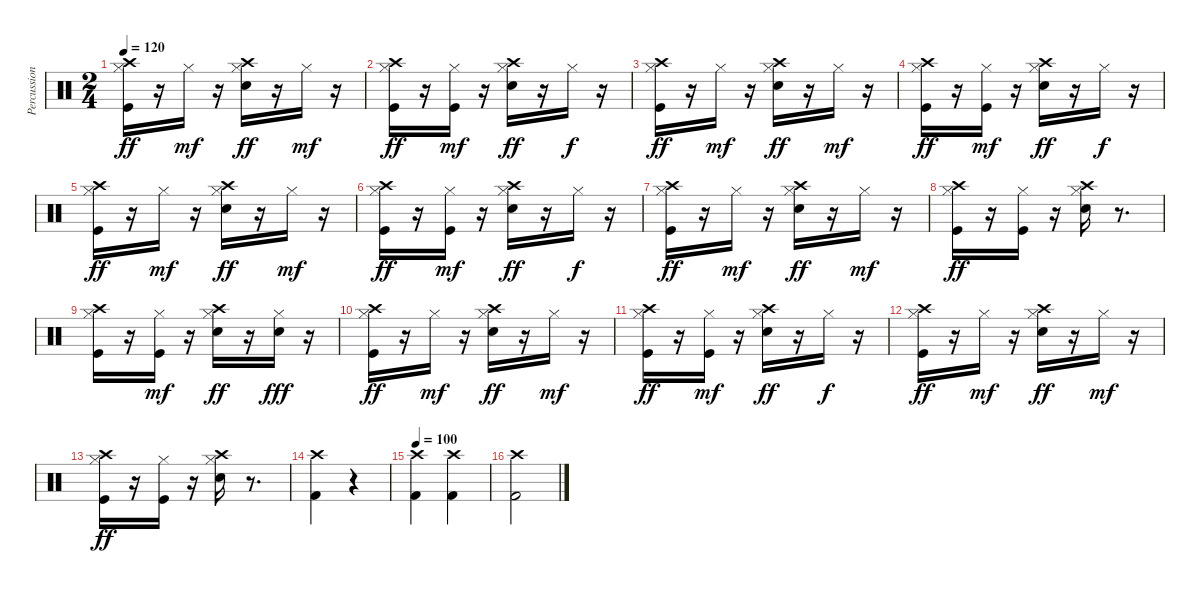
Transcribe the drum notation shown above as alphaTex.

\track ("Percussion" "Percussion") {instrument percussion}
\staff {score}
\articulation defaults
\ts (2 4)
\tempo 120
\clef neutral
\ks c
("Kick (hit)" "Hi-Hat (closed)" "Crash high (hit)").16{dy ff} r.16 "Hi-Hat (closed)".16{dy mf} r.16 ("Snare (hit) 2" "Hi-Hat (closed)" "Crash high (hit)").16{dy ff} r.16 "Hi-Hat (closed)".16{dy mf} r.16 |
("Kick (hit)" "Hi-Hat (closed)" "Crash high (hit)").16{dy ff} r.16 ("Kick (hit)" "Hi-Hat (closed)").16{dy mf} r.16 ("Snare (hit) 2" "Hi-Hat (closed)" "Crash high (hit)").16{dy ff} r.16 "Hi-Hat (closed)".16{dy f} r.16 |
("Kick (hit)" "Hi-Hat (closed)" "Crash high (hit)").16{dy ff} r.16 "Hi-Hat (closed)".16{dy mf} r.16 ("Snare (hit) 2" "Hi-Hat (closed)" "Crash high (hit)").16{dy ff} r.16 "Hi-Hat (closed)".16{dy mf} r.16 |
("Kick (hit)" "Hi-Hat (closed)" "Crash high (hit)").16{dy ff} r.16 ("Kick (hit)" "Hi-Hat (closed)").16{dy mf} r.16 ("Snare (hit) 2" "Hi-Hat (closed)" "Crash high (hit)").16{dy ff} r.16 "Hi-Hat (closed)".16{dy f} r.16 |
("Kick (hit)" "Hi-Hat (closed)" "Crash high (hit)").16{dy ff} r.16 "Hi-Hat (closed)".16{dy mf} r.16 ("Snare (hit) 2" "Hi-Hat (closed)" "Crash high (hit)").16{dy ff} r.16 "Hi-Hat (closed)".16{dy mf} r.16 |
("Kick (hit)" "Hi-Hat (closed)" "Crash high (hit)").16{dy ff} r.16 ("Kick (hit)" "Hi-Hat (closed)").16{dy mf} r.16 ("Snare (hit) 2" "Hi-Hat (closed)" "Crash high (hit)").16{dy ff} r.16 "Hi-Hat (closed)".16{dy f} r.16 |
("Kick (hit)" "Hi-Hat (closed)" "Crash high (hit)").16{dy ff} r.16 "Hi-Hat (closed)".16{dy mf} r.16 ("Snare (hit) 2" "Hi-Hat (closed)" "Crash high (hit)").16{dy ff} r.16 "Hi-Hat (closed)".16{dy mf} r.16 |
("Kick (hit)" "Hi-Hat (closed)" "Crash high (hit)").16{dy ff} r.16 ("Kick (hit)" "Hi-Hat (closed)").16 r.16 ("Snare (hit) 2" "Hi-Hat (closed)" "Crash high (hit)").16 r.8{d} |
("Kick (hit)" "Hi-Hat (closed)" "Crash high (hit)").16 r.16 ("Kick (hit)" "Hi-Hat (closed)").16{dy mf} r.16 ("Snare (hit) 2" "Hi-Hat (closed)" "Crash high (hit)").16{dy ff} r.16 ("Hi-Hat (closed)" "Snare (hit) 2").16{dy fff} r.16 |
("Kick (hit)" "Hi-Hat (closed)" "Crash high (hit)").16{dy ff} r.16 "Hi-Hat (closed)".16{dy mf} r.16 ("Snare (hit) 2" "Hi-Hat (closed)" "Crash high (hit)").16{dy ff} r.16 "Hi-Hat (closed)".16{dy mf} r.16 |
("Kick (hit)" "Hi-Hat (closed)" "Crash high (hit)").16{dy ff} r.16 ("Kick (hit)" "Hi-Hat (closed)").16{dy mf} r.16 ("Snare (hit) 2" "Hi-Hat (closed)" "Crash high (hit)").16{dy ff} r.16 "Hi-Hat (closed)".16{dy f} r.16 |
("Kick (hit)" "Hi-Hat (closed)" "Crash high (hit)").16{dy ff} r.16 "Hi-Hat (closed)".16{dy mf} r.16 ("Snare (hit) 2" "Hi-Hat (closed)" "Crash high (hit)").16{dy ff} r.16 "Hi-Hat (closed)".16{dy mf} r.16 |
("Kick (hit)" "Hi-Hat (closed)" "Crash high (hit)").16{dy ff} r.16 ("Kick (hit)" "Hi-Hat (closed)").16 r.16 ("Snare (hit) 2" "Hi-Hat (closed)" "Crash high (hit)").16 r.8{d} |
("Kick (hit) 2" "Crash high (hit)").4 r.4 |
\tempo 100
("Kick (hit) 2" "Crash high (hit)").4 ("Kick (hit) 2" "Crash high (hit)").4 |
("Kick (hit) 2" "Crash high (hit)").2
